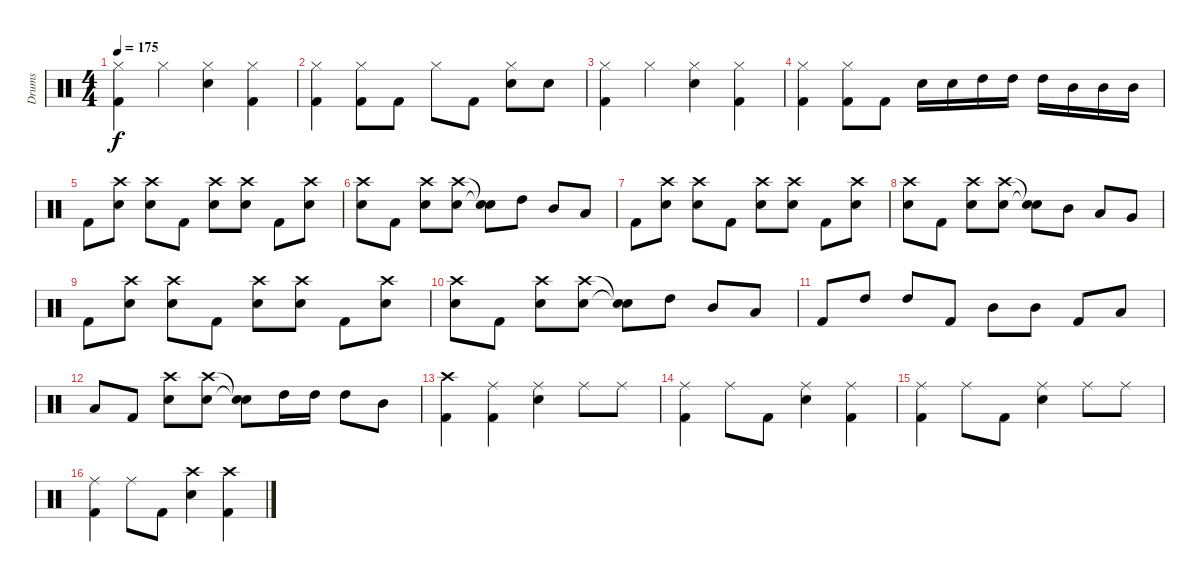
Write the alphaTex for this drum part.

\track ("Drums" "Drums") {instrument percussion}
\staff {score}
\articulation defaults
\ts (4 4)
\tempo 175
\clef neutral
\ks c
("Hi-Hat (closed)" "Kick (hit) 2").4{dy f} "Hi-Hat (closed)".4 ("Hi-Hat (closed)" "Electric Snare (hit)").4 ("Hi-Hat (closed)" "Kick (hit) 2").4 |
("Hi-Hat (closed)" "Kick (hit) 2").4 ("Hi-Hat (closed)" "Kick (hit) 2").8 "Kick (hit) 2".8 "Hi-Hat (closed)".8 "Kick (hit) 2".8 ("Hi-Hat (closed)" "Electric Snare (hit)").8 "Electric Snare (hit)".8 |
("Hi-Hat (closed)" "Kick (hit) 2").4 "Hi-Hat (closed)".4 ("Hi-Hat (closed)" "Electric Snare (hit)").4 ("Hi-Hat (closed)" "Kick (hit) 2").4 |
("Hi-Hat (closed)" "Kick (hit) 2").4 ("Hi-Hat (closed)" "Kick (hit) 2").8 "Kick (hit) 2".8 "Electric Snare (hit)".16 "Electric Snare (hit)".16 "High Tom (hit)".16 "High Tom (hit)".16 "High Tom (hit)".16 "Mid Tom (hit)".16 "Mid Tom (hit)".16 "Mid Tom (hit)".16 |
"Kick (hit) 2".8 ("Crash high (hit)" "Electric Snare (hit)").8 ("Crash high (hit)" "Electric Snare (hit)").8 "Kick (hit) 2".8 ("Crash high (hit)" "Electric Snare (hit)").8 ("Crash high (hit)" "Electric Snare (hit)").8 "Kick (hit) 2".8 ("Crash high (hit)" "Electric Snare (hit)").8 |
("Crash high (hit)" "Electric Snare (hit)").8 "Kick (hit) 2".8 ("Crash high (hit)" "Electric Snare (hit)").8 ("Crash high (hit)" "Electric Snare (hit)").8 ("Snare (hit)"{t} "Snare (hit)"{t}).8 "High Tom (hit)".8 "Mid Tom (hit)".8 "Low Tom (hit)".8 |
"Kick (hit) 2".8 ("Crash high (hit)" "Electric Snare (hit)").8 ("Crash high (hit)" "Electric Snare (hit)").8 "Kick (hit) 2".8 ("Crash high (hit)" "Electric Snare (hit)").8 ("Crash high (hit)" "Electric Snare (hit)").8 "Kick (hit) 2".8 ("Crash high (hit)" "Electric Snare (hit)").8 |
("Crash high (hit)" "Electric Snare (hit)").8 "Kick (hit) 2".8 ("Crash high (hit)" "Electric Snare (hit)").8 ("Crash high (hit)" "Electric Snare (hit)").8 ("Snare (hit)"{t} "Snare (hit)"{t}).8 "Mid Tom (hit)".8 "Low Tom (hit)".8 "Very Low Tom (hit)".8 |
"Kick (hit) 2".8 ("Crash high (hit)" "Electric Snare (hit)").8 ("Crash high (hit)" "Electric Snare (hit)").8 "Kick (hit) 2".8 ("Crash high (hit)" "Electric Snare (hit)").8 ("Crash high (hit)" "Electric Snare (hit)").8 "Kick (hit) 2".8 ("Crash high (hit)" "Electric Snare (hit)").8 |
("Crash high (hit)" "Electric Snare (hit)").8 "Kick (hit) 2".8 ("Crash high (hit)" "Electric Snare (hit)").8 ("Crash high (hit)" "Electric Snare (hit)").8 ("Snare (hit)"{t} "Snare (hit)"{t}).8 "High Tom (hit)".8 "Mid Tom (hit)".8 "Low Tom (hit)".8 |
"Kick (hit) 2".8 "High Tom (hit)".8 "High Tom (hit)".8 "Kick (hit) 2".8 "Mid Tom (hit)".8 "Mid Tom (hit)".8 "Kick (hit) 2".8 "Low Tom (hit)".8 |
"Low Tom (hit)".8 "Kick (hit) 2".8 ("Crash high (hit)" "Electric Snare (hit)").8 ("Crash high (hit)" "Electric Snare (hit)").8 ("Snare (hit)"{t} "Snare (hit)"{t}).8 "High Tom (hit)".16 "High Tom (hit)".16 "High Tom (hit)".8 "Mid Tom (hit)".8 |
("Crash high (hit)" "Kick (hit) 2").4 ("Ride (middle)" "Kick (hit) 2").4 ("Ride (middle)" "Electric Snare (hit)").4 "Ride (middle)".8 "Ride (middle)".8 |
("Ride (middle)" "Kick (hit) 2").4 "Ride (middle)".8 "Kick (hit) 2".8 ("Ride (middle)" "Electric Snare (hit)").4 ("Ride (middle)" "Kick (hit) 2").4 |
("Ride (middle)" "Kick (hit) 2").4 "Ride (middle)".8 "Kick (hit) 2".8 ("Ride (middle)" "Electric Snare (hit)").4 "Ride (middle)".8 "Ride (middle)".8 |
("Ride (middle)" "Kick (hit) 2").4 "Ride (middle)".8 "Kick (hit) 2".8 ("Crash high (hit)" "Electric Snare (hit)").4 ("Crash high (hit)" "Kick (hit) 2").4
